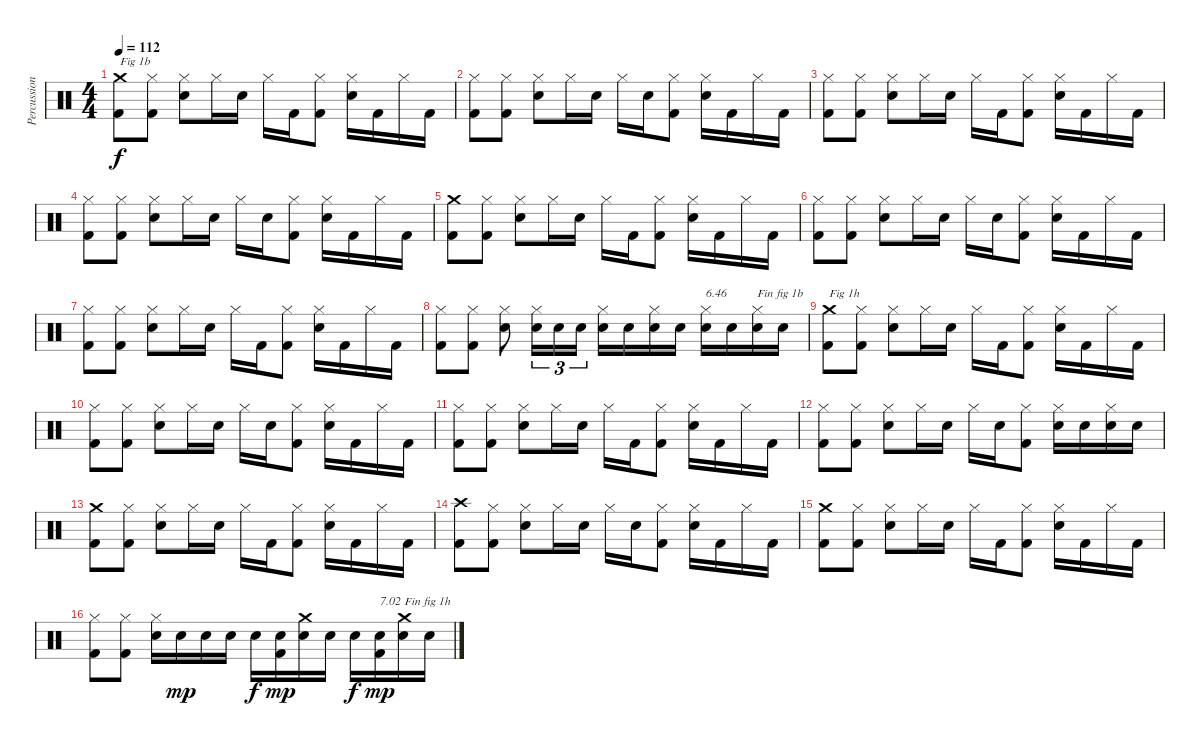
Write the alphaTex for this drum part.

\track ("Percussions" "Percussion") {instrument percussion}
\staff {score}
\articulation defaults
\ts (4 4)
\tempo 112
\clef neutral
\ks c
("Kick (hit) 2" "Crash medium (hit)").8{txt "Fig 1b" dy f} ("Kick (hit) 2" "Hi-Hat (closed)").8 ("Snare (hit) 2" "Hi-Hat (closed)").8 "Hi-Hat (closed)".16 "Snare (hit) 2".16 "Hi-Hat (closed)".16 "Kick (hit) 2".16 ("Kick (hit) 2" "Hi-Hat (closed)").8 ("Snare (hit) 2" "Hi-Hat (closed)").16 "Kick (hit) 2".16 "Hi-Hat (closed)".16 "Kick (hit) 2".16 |
("Kick (hit) 2" "Hi-Hat (closed)").8 ("Kick (hit) 2" "Hi-Hat (closed)").8 ("Snare (hit) 2" "Hi-Hat (closed)").8 "Hi-Hat (closed)".16 "Snare (hit) 2".16 "Hi-Hat (closed)".16 "Snare (hit) 2".16 ("Kick (hit) 2" "Hi-Hat (closed)").8 ("Snare (hit) 2" "Hi-Hat (closed)").16 "Kick (hit) 2".16 "Hi-Hat (closed)".16 "Kick (hit) 2".16 |
("Kick (hit) 2" "Hi-Hat (closed)").8 ("Kick (hit) 2" "Hi-Hat (closed)").8 ("Snare (hit) 2" "Hi-Hat (closed)").8 "Hi-Hat (closed)".16 "Snare (hit) 2".16 "Hi-Hat (closed)".16 "Kick (hit) 2".16 ("Kick (hit) 2" "Hi-Hat (closed)").8 ("Snare (hit) 2" "Hi-Hat (closed)").16 "Kick (hit) 2".16 "Hi-Hat (closed)".16 "Kick (hit) 2".16 |
("Kick (hit) 2" "Hi-Hat (closed)").8 ("Kick (hit) 2" "Hi-Hat (closed)").8 ("Snare (hit) 2" "Hi-Hat (closed)").8 "Hi-Hat (closed)".16 "Snare (hit) 2".16 "Hi-Hat (closed)".16 "Snare (hit) 2".16 ("Kick (hit) 2" "Hi-Hat (closed)").8 ("Snare (hit) 2" "Hi-Hat (closed)").16 "Kick (hit) 2".16 "Hi-Hat (closed)".16 "Kick (hit) 2".16 |
("Kick (hit) 2" "Crash medium (hit)").8 ("Kick (hit) 2" "Hi-Hat (closed)").8 ("Snare (hit) 2" "Hi-Hat (closed)").8 "Hi-Hat (closed)".16 "Snare (hit) 2".16 "Hi-Hat (closed)".16 "Kick (hit) 2".16 ("Kick (hit) 2" "Hi-Hat (closed)").8 ("Snare (hit) 2" "Hi-Hat (closed)").16 "Kick (hit) 2".16 "Hi-Hat (closed)".16 "Kick (hit) 2".16 |
("Kick (hit) 2" "Hi-Hat (closed)").8 ("Kick (hit) 2" "Hi-Hat (closed)").8 ("Snare (hit) 2" "Hi-Hat (closed)").8 "Hi-Hat (closed)".16 "Snare (hit) 2".16 "Hi-Hat (closed)".16 "Snare (hit) 2".16 ("Kick (hit) 2" "Hi-Hat (closed)").8 ("Snare (hit) 2" "Hi-Hat (closed)").16 "Kick (hit) 2".16 "Hi-Hat (closed)".16 "Kick (hit) 2".16 |
("Kick (hit) 2" "Hi-Hat (closed)").8 ("Kick (hit) 2" "Hi-Hat (closed)").8 ("Snare (hit) 2" "Hi-Hat (closed)").8 "Hi-Hat (closed)".16 "Snare (hit) 2".16 "Hi-Hat (closed)".16 "Kick (hit) 2".16 ("Kick (hit) 2" "Hi-Hat (closed)").8 ("Snare (hit) 2" "Hi-Hat (closed)").16 "Kick (hit) 2".16 "Hi-Hat (closed)".16 "Kick (hit) 2".16 |
("Kick (hit) 2" "Hi-Hat (closed)").8 ("Kick (hit) 2" "Hi-Hat (closed)").8 ("Snare (hit) 2" "Hi-Hat (closed)").8 ("Snare (hit) 2" "Hi-Hat (closed)").16{tu (3 2)} "Snare (hit) 2".16{tu (3 2)} "Snare (hit) 2".16{tu (3 2)} ("Snare (hit) 2" "Hi-Hat (closed)").16 "Snare (hit) 2".16 ("Snare (hit) 2" "Hi-Hat (closed)").16 "Snare (hit) 2".16 ("Snare (hit) 2" "Hi-Hat (closed)").16{txt "6.46"} "Snare (hit) 2".16 ("Snare (hit) 2" "Hi-Hat (closed)").16{txt "Fin fig 1b"} "Snare (hit) 2".16 |
("Kick (hit) 2" "Crash medium (hit)").8{txt "Fig 1h"} ("Kick (hit) 2" "Hi-Hat (closed)").8 ("Snare (hit) 2" "Hi-Hat (closed)").8 "Hi-Hat (closed)".16 "Snare (hit) 2".16 "Hi-Hat (closed)".16 "Kick (hit) 2".16 ("Kick (hit) 2" "Hi-Hat (closed)").8 ("Snare (hit) 2" "Hi-Hat (closed)").16 "Kick (hit) 2".16 "Hi-Hat (closed)".16 "Kick (hit) 2".16 |
("Kick (hit) 2" "Hi-Hat (closed)").8 ("Kick (hit) 2" "Hi-Hat (closed)").8 ("Snare (hit) 2" "Hi-Hat (closed)").8 "Hi-Hat (closed)".16 "Snare (hit) 2".16 "Hi-Hat (closed)".16 "Snare (hit) 2".16 ("Kick (hit) 2" "Hi-Hat (closed)").8 ("Snare (hit) 2" "Hi-Hat (closed)").16 "Kick (hit) 2".16 "Hi-Hat (closed)".16 "Kick (hit) 2".16 |
("Kick (hit) 2" "Hi-Hat (closed)").8 ("Kick (hit) 2" "Hi-Hat (closed)").8 ("Snare (hit) 2" "Hi-Hat (closed)").8 "Hi-Hat (closed)".16 "Snare (hit) 2".16 "Hi-Hat (closed)".16 "Kick (hit) 2".16 ("Kick (hit) 2" "Hi-Hat (closed)").8 ("Snare (hit) 2" "Hi-Hat (closed)").16 "Kick (hit) 2".16 "Hi-Hat (closed)".16 "Kick (hit) 2".16 |
("Kick (hit) 2" "Hi-Hat (closed)").8 ("Kick (hit) 2" "Hi-Hat (closed)").8 ("Snare (hit) 2" "Hi-Hat (closed)").8 "Hi-Hat (closed)".16 "Snare (hit) 2".16 "Hi-Hat (closed)".16 "Snare (hit) 2".16 ("Kick (hit) 2" "Hi-Hat (closed)").8 ("Snare (hit) 2" "Hi-Hat (closed)").16 "Snare (hit) 2".16 ("Snare (hit) 2" "Hi-Hat (closed)").16 "Snare (hit) 2".16 |
("Kick (hit) 2" "Crash medium (hit)").8 ("Kick (hit) 2" "Hi-Hat (closed)").8 ("Snare (hit) 2" "Hi-Hat (closed)").8 "Hi-Hat (closed)".16 "Snare (hit) 2".16 "Hi-Hat (closed)".16 "Kick (hit) 2".16 ("Kick (hit) 2" "Hi-Hat (closed)").8 ("Snare (hit) 2" "Hi-Hat (closed)").16 "Kick (hit) 2".16 "Hi-Hat (closed)".16 "Kick (hit) 2".16 |
("Kick (hit) 2" "Crash high (hit)").8 ("Kick (hit) 2" "Hi-Hat (closed)").8 ("Snare (hit) 2" "Hi-Hat (closed)").8 "Hi-Hat (closed)".16 "Snare (hit) 2".16 "Hi-Hat (closed)".16 "Snare (hit) 2".16 ("Kick (hit) 2" "Hi-Hat (closed)").8 ("Snare (hit) 2" "Hi-Hat (closed)").16 "Kick (hit) 2".16 "Hi-Hat (closed)".16 "Kick (hit) 2".16 |
("Kick (hit) 2" "Crash medium (hit)").8 ("Kick (hit) 2" "Hi-Hat (closed)").8 ("Snare (hit) 2" "Hi-Hat (closed)").8 "Hi-Hat (closed)".16 "Snare (hit) 2".16 "Hi-Hat (closed)".16 "Kick (hit) 2".16 ("Kick (hit) 2" "Hi-Hat (closed)").8 ("Snare (hit) 2" "Hi-Hat (closed)").16 "Kick (hit) 2".16 "Hi-Hat (closed)".16 "Kick (hit) 2".16 |
("Kick (hit) 2" "Hi-Hat (closed)").8 ("Kick (hit) 2" "Hi-Hat (closed)").8 ("Snare (hit) 2" "Hi-Hat (closed)").16 "Snare (hit) 2".16{dy mp} "Snare (hit) 2".16 "Snare (hit) 2".16 "Snare (hit) 2".16{dy f} ("Kick (hit) 2" "Snare (hit) 2").16{dy mp} ("Snare (hit) 2" "Crash medium (hit)").16 "Snare (hit) 2".16 "Snare (hit) 2".16{dy f} ("Kick (hit) 2" "Snare (hit) 2").16{txt "7.02" dy mp} ("Snare (hit) 2" "Crash medium (hit)").16{txt "Fin fig 1h"} "Snare (hit) 2".16
